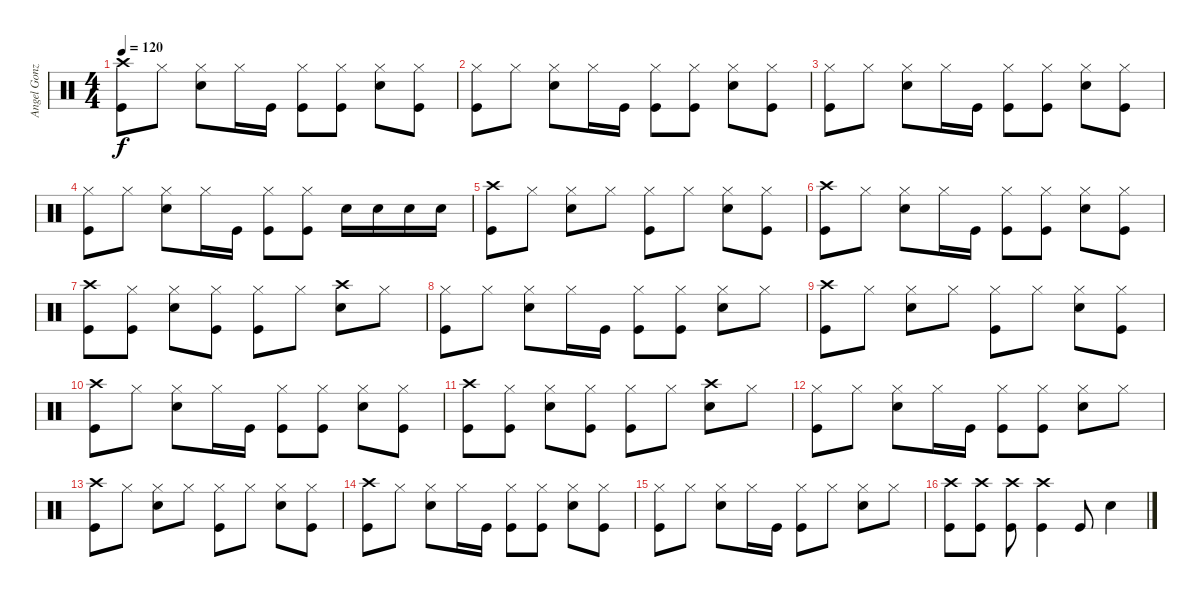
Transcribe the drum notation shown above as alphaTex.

\track ("Angel Gonzalez - Batería" "Angel Gonz") {instrument percussion}
\staff {score}
\articulation defaults
\ts (4 4)
\tempo 120
\clef neutral
\ks c
("Crash high (hit)" "Kick (hit)").8{dy f} "Hi-Hat (closed)".8 ("Hi-Hat (closed)" "Electric Snare (hit)").8 "Hi-Hat (closed)".16 "Kick (hit)".16 ("Hi-Hat (closed)" "Kick (hit)").8 ("Hi-Hat (closed)" "Kick (hit)").8 ("Hi-Hat (closed)" "Electric Snare (hit)").8 ("Hi-Hat (closed)" "Kick (hit)").8 |
("Hi-Hat (closed)" "Kick (hit)").8 "Hi-Hat (closed)".8 ("Hi-Hat (closed)" "Electric Snare (hit)").8 "Hi-Hat (closed)".16 "Kick (hit)".16 ("Hi-Hat (closed)" "Kick (hit)").8 ("Hi-Hat (closed)" "Kick (hit)").8 ("Hi-Hat (closed)" "Electric Snare (hit)").8 ("Hi-Hat (closed)" "Kick (hit)").8 |
("Hi-Hat (closed)" "Kick (hit)").8 "Hi-Hat (closed)".8 ("Hi-Hat (closed)" "Electric Snare (hit)").8 "Hi-Hat (closed)".16 "Kick (hit)".16 ("Hi-Hat (closed)" "Kick (hit)").8 ("Hi-Hat (closed)" "Kick (hit)").8 ("Hi-Hat (closed)" "Electric Snare (hit)").8 ("Hi-Hat (closed)" "Kick (hit)").8 |
("Hi-Hat (closed)" "Kick (hit)").8 "Hi-Hat (closed)".8 ("Hi-Hat (closed)" "Electric Snare (hit)").8 "Hi-Hat (closed)".16 "Kick (hit)".16 ("Hi-Hat (closed)" "Kick (hit)").8 ("Hi-Hat (closed)" "Kick (hit)").8 "Electric Snare (hit)".16 "Electric Snare (hit)".16 "Electric Snare (hit)".16 "Electric Snare (hit)".16 |
("Crash high (hit)" "Kick (hit)").8 "Hi-Hat (closed)".8 ("Hi-Hat (closed)" "Electric Snare (hit)").8 "Hi-Hat (closed)".8 ("Hi-Hat (closed)" "Kick (hit)").8 "Hi-Hat (closed)".8 ("Hi-Hat (closed)" "Electric Snare (hit)").8 ("Hi-Hat (closed)" "Kick (hit)").8 |
("Crash high (hit)" "Kick (hit)").8 "Hi-Hat (closed)".8 ("Hi-Hat (closed)" "Electric Snare (hit)").8 "Hi-Hat (closed)".16 "Kick (hit)".16 ("Hi-Hat (closed)" "Kick (hit)").8 ("Hi-Hat (closed)" "Kick (hit)").8 ("Hi-Hat (closed)" "Electric Snare (hit)").8 ("Hi-Hat (closed)" "Kick (hit)").8 |
("Crash high (hit)" "Kick (hit)").8 ("Hi-Hat (closed)" "Kick (hit)").8 ("Hi-Hat (closed)" "Electric Snare (hit)").8 ("Hi-Hat (closed)" "Kick (hit)").8 ("Hi-Hat (closed)" "Kick (hit)").8 "Hi-Hat (closed)".8 ("Crash high (hit)" "Electric Snare (hit)").8 "Hi-Hat (closed)".8 |
("Hi-Hat (closed)" "Kick (hit)").8 "Hi-Hat (closed)".8 ("Hi-Hat (closed)" "Electric Snare (hit)").8 "Hi-Hat (closed)".16 "Kick (hit)".16 ("Hi-Hat (closed)" "Kick (hit)").8 ("Hi-Hat (closed)" "Kick (hit)").8 ("Hi-Hat (closed)" "Electric Snare (hit)").8 "Hi-Hat (closed)".8 |
("Crash high (hit)" "Kick (hit)").8 "Hi-Hat (closed)".8 ("Hi-Hat (closed)" "Electric Snare (hit)").8 "Hi-Hat (closed)".8 ("Hi-Hat (closed)" "Kick (hit)").8 "Hi-Hat (closed)".8 ("Hi-Hat (closed)" "Electric Snare (hit)").8 ("Hi-Hat (closed)" "Kick (hit)").8 |
("Crash high (hit)" "Kick (hit)").8 "Hi-Hat (closed)".8 ("Hi-Hat (closed)" "Electric Snare (hit)").8 "Hi-Hat (closed)".16 "Kick (hit)".16 ("Hi-Hat (closed)" "Kick (hit)").8 ("Hi-Hat (closed)" "Kick (hit)").8 ("Hi-Hat (closed)" "Electric Snare (hit)").8 ("Hi-Hat (closed)" "Kick (hit)").8 |
("Crash high (hit)" "Kick (hit)").8 ("Hi-Hat (closed)" "Kick (hit)").8 ("Hi-Hat (closed)" "Electric Snare (hit)").8 ("Hi-Hat (closed)" "Kick (hit)").8 ("Hi-Hat (closed)" "Kick (hit)").8 "Hi-Hat (closed)".8 ("Crash high (hit)" "Electric Snare (hit)").8 "Hi-Hat (closed)".8 |
("Hi-Hat (closed)" "Kick (hit)").8 "Hi-Hat (closed)".8 ("Hi-Hat (closed)" "Electric Snare (hit)").8 "Hi-Hat (closed)".16 "Kick (hit)".16 ("Hi-Hat (closed)" "Kick (hit)").8 ("Hi-Hat (closed)" "Kick (hit)").8 ("Hi-Hat (closed)" "Electric Snare (hit)").8 "Hi-Hat (closed)".8 |
("Crash high (hit)" "Kick (hit)").8 "Hi-Hat (closed)".8 ("Hi-Hat (closed)" "Electric Snare (hit)").8 "Hi-Hat (closed)".8 ("Hi-Hat (closed)" "Kick (hit)").8 "Hi-Hat (closed)".8 ("Hi-Hat (closed)" "Electric Snare (hit)").8 ("Hi-Hat (closed)" "Kick (hit)").8 |
("Crash high (hit)" "Kick (hit)").8 "Hi-Hat (closed)".8 ("Hi-Hat (closed)" "Electric Snare (hit)").8 "Hi-Hat (closed)".16 "Kick (hit)".16 ("Hi-Hat (closed)" "Kick (hit)").8 ("Hi-Hat (closed)" "Kick (hit)").8 ("Hi-Hat (closed)" "Electric Snare (hit)").8 ("Hi-Hat (closed)" "Kick (hit)").8 |
("Hi-Hat (closed)" "Kick (hit)").8 "Hi-Hat (closed)".8 ("Hi-Hat (closed)" "Electric Snare (hit)").8 "Hi-Hat (closed)".16 "Kick (hit)".16 ("Hi-Hat (closed)" "Kick (hit)").8 "Hi-Hat (closed)".8 ("Hi-Hat (closed)" "Electric Snare (hit)").8 "Hi-Hat (closed)".8 |
("Crash high (hit)" "Kick (hit)").8 ("Crash high (hit)" "Kick (hit)").8 ("Crash high (hit)" "Kick (hit)").8 ("Crash high (hit)" "Kick (hit)").4 "Kick (hit)".8 "Electric Snare (hit)".4
